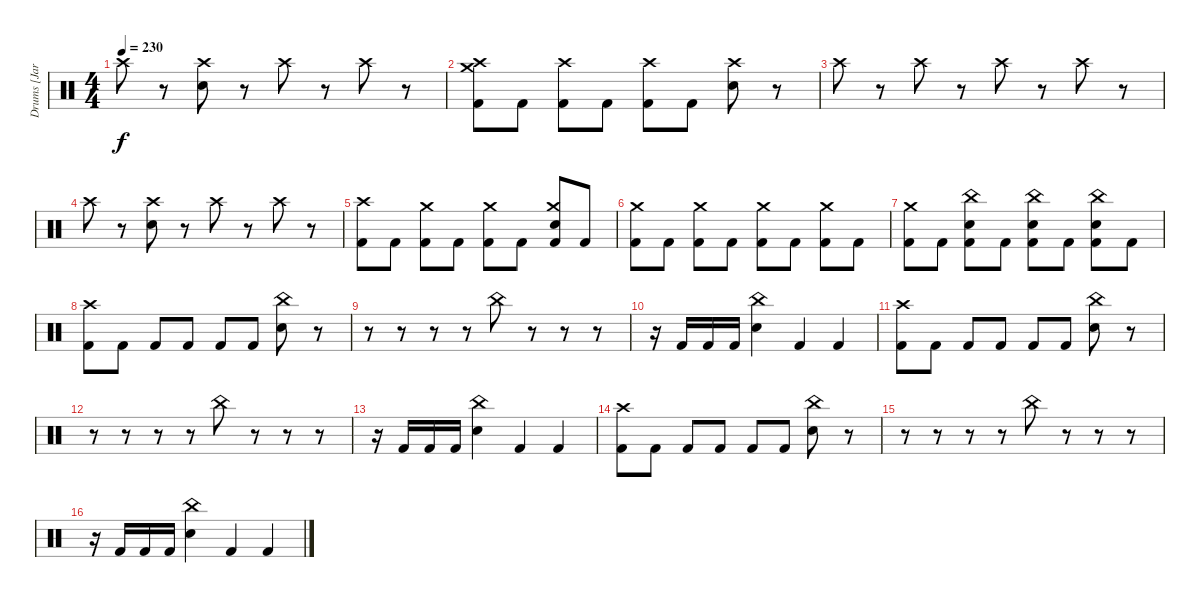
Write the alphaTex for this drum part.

\track ("Drums [Jared]" "Drums [Jar") {instrument percussion}
\staff {score}
\articulation defaults
\ts (4 4)
\tempo 230
\clef neutral
\ks c "Crash high (hit)".8{dy f}
r.8 ("Crash high (hit)" "Electric Snare (hit)").8 r.8 "Crash high (hit)".8 r.8 "Crash high (hit)".8 r.8 |
("Crash medium (hit)" "Crash high (hit)" "Kick (hit) 2").8 "Kick (hit) 2".8 ("Crash high (hit)" "Kick (hit) 2").8 "Kick (hit) 2".8 ("Crash high (hit)" "Kick (hit) 2").8 "Kick (hit) 2".8 ("Crash high (hit)" "Electric Snare (hit)").8 r.8 |
"Crash high (hit)".8 r.8 "Crash high (hit)".8 r.8 "Crash high (hit)".8 r.8 "Crash high (hit)".8 r.8 |
"Crash high (hit)".8 r.8 ("Crash high (hit)" "Electric Snare (hit)").8 r.8 "Crash high (hit)".8 r.8 "Crash high (hit)".8 r.8 |
("Crash high (hit)" "Kick (hit) 2").8 "Kick (hit) 2".8 ("Crash medium (hit)" "Kick (hit) 2").8 "Kick (hit) 2".8 ("Crash medium (hit)" "Kick (hit) 2").8 "Kick (hit) 2".8 ("Crash medium (hit)" "Electric Snare (hit)" "Kick (hit) 2").8 "Kick (hit) 2".8 |
("Crash medium (hit)" "Kick (hit) 2").8 "Kick (hit) 2".8 ("Crash medium (hit)" "Kick (hit) 2").8 "Kick (hit) 2".8 ("Crash medium (hit)" "Kick (hit) 2").8 "Kick (hit) 2".8 ("Crash medium (hit)" "Kick (hit) 2").8 "Kick (hit) 2".8 |
("Crash medium (hit)" "Kick (hit) 2").8 "Kick (hit) 2".8 ("China (hit)" "Electric Snare (hit)" "Kick (hit) 2").8 "Kick (hit) 2".8 ("China (hit)" "Electric Snare (hit)" "Kick (hit) 2").8 "Kick (hit) 2".8 ("China (hit)" "Electric Snare (hit)" "Kick (hit) 2").8 "Kick (hit) 2".8 |
("Crash high (hit)" "Kick (hit) 2").8 "Kick (hit) 2".8 "Kick (hit) 2".8 "Kick (hit) 2".8 "Kick (hit) 2".8 "Kick (hit) 2".8 ("China (hit)" "Electric Snare (hit)").8 r.8 |
r.8 r.8 r.8 r.8 "China (hit)".8 r.8 r.8 r.8 |
r.16 "Kick (hit) 2".16 "Kick (hit) 2".16 "Kick (hit) 2".16 ("China (hit)" "Electric Snare (hit)").4 "Kick (hit) 2".4 "Kick (hit) 2".4 |
("Crash high (hit)" "Kick (hit) 2").8 "Kick (hit) 2".8 "Kick (hit) 2".8 "Kick (hit) 2".8 "Kick (hit) 2".8 "Kick (hit) 2".8 ("China (hit)" "Electric Snare (hit)").8 r.8 |
r.8 r.8 r.8 r.8 "China (hit)".8 r.8 r.8 r.8 |
r.16 "Kick (hit) 2".16 "Kick (hit) 2".16 "Kick (hit) 2".16 ("China (hit)" "Electric Snare (hit)").4 "Kick (hit) 2".4 "Kick (hit) 2".4 |
("Crash high (hit)" "Kick (hit) 2").8 "Kick (hit) 2".8 "Kick (hit) 2".8 "Kick (hit) 2".8 "Kick (hit) 2".8 "Kick (hit) 2".8 ("China (hit)" "Electric Snare (hit)").8 r.8 |
r.8 r.8 r.8 r.8 "China (hit)".8 r.8 r.8 r.8 |
r.16 "Kick (hit) 2".16 "Kick (hit) 2".16 "Kick (hit) 2".16 ("China (hit)" "Electric Snare (hit)").4 "Kick (hit) 2".4 "Kick (hit) 2".4
